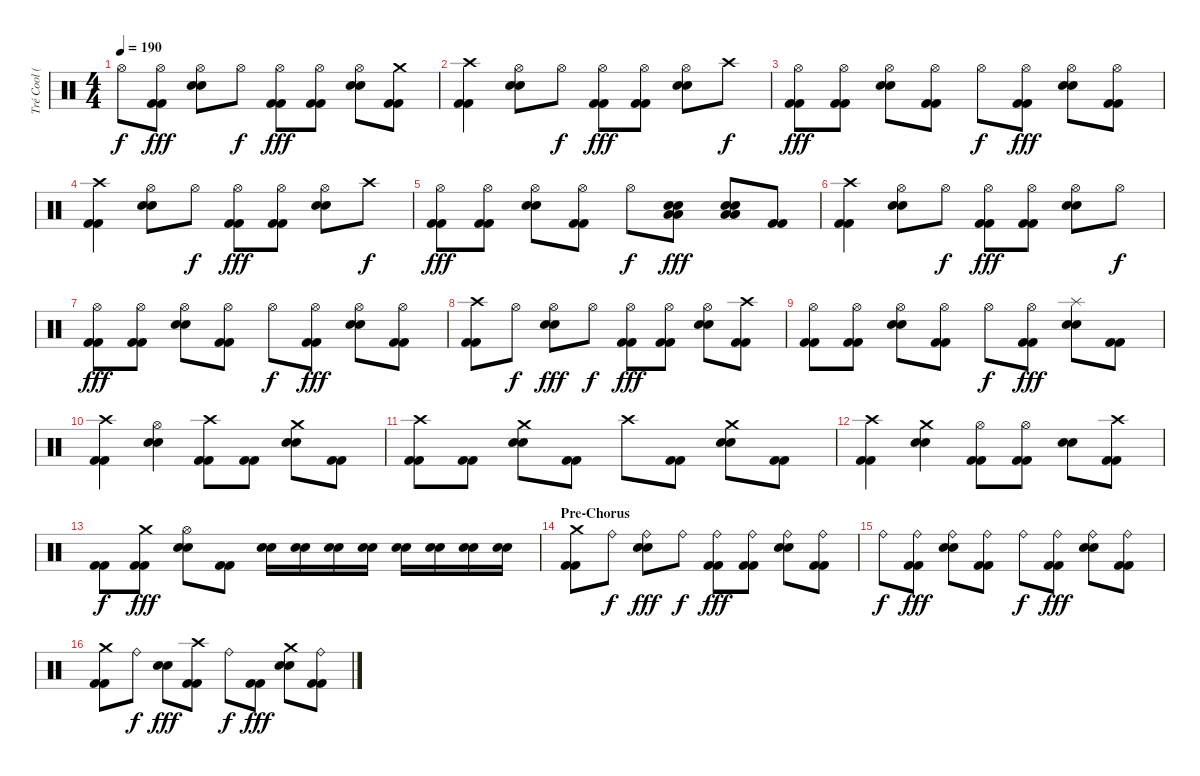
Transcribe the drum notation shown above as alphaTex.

\track ("Tré Cool (Drums)" "Tré Cool (") {instrument percussion}
\staff {score}
\articulation defaults
\ts (4 4)
\tempo 190
\clef neutral
\ks c "Hi-Hat (open)".8{dy f}
("Kick (hit) 2" "Kick (hit) 2" "Hi-Hat (open)").8{dy fff} ("Electric Snare (hit)" "Electric Snare (hit)" "Hi-Hat (open)").8 "Hi-Hat (open)".8{dy f} ("Kick (hit) 2" "Kick (hit) 2" "Hi-Hat (open)").8{dy fff} ("Kick (hit) 2" "Kick (hit) 2" "Hi-Hat (open)").8 ("Electric Snare (hit)" "Electric Snare (hit)" "Hi-Hat (open)").8 ("Kick (hit) 2" "Kick (hit) 2" "Crash medium (hit)").8 |
("Kick (hit) 2" "Kick (hit) 2" "Crash high (hit)").4 ("Electric Snare (hit)" "Electric Snare (hit)" "Hi-Hat (open)").8 "Hi-Hat (open)".8{dy f} ("Kick (hit) 2" "Kick (hit) 2" "Hi-Hat (open)").8{dy fff} ("Kick (hit) 2" "Kick (hit) 2" "Hi-Hat (open)").8 ("Electric Snare (hit)" "Electric Snare (hit)" "Hi-Hat (open)").8 "Crash high (hit)".8{dy f} |
("Kick (hit) 2" "Kick (hit) 2" "Hi-Hat (open)").8{dy fff} ("Kick (hit) 2" "Kick (hit) 2" "Hi-Hat (open)").8 ("Electric Snare (hit)" "Electric Snare (hit)" "Hi-Hat (open)").8 ("Kick (hit) 2" "Kick (hit) 2" "Hi-Hat (open)").8 "Hi-Hat (open)".8{dy f} ("Kick (hit) 2" "Kick (hit) 2" "Hi-Hat (open)").8{dy fff} ("Electric Snare (hit)" "Electric Snare (hit)" "Hi-Hat (open)").8 ("Kick (hit) 2" "Kick (hit) 2" "Hi-Hat (open)").8 |
("Kick (hit) 2" "Kick (hit) 2" "Crash high (hit)").4 ("Electric Snare (hit)" "Electric Snare (hit)" "Hi-Hat (open)").8 "Hi-Hat (open)".8{dy f} ("Kick (hit) 2" "Kick (hit) 2" "Hi-Hat (open)").8{dy fff} ("Kick (hit) 2" "Kick (hit) 2" "Hi-Hat (open)").8 ("Electric Snare (hit)" "Electric Snare (hit)" "Hi-Hat (open)").8 "Crash high (hit)".8{dy f} |
("Kick (hit) 2" "Kick (hit) 2" "Hi-Hat (open)").8{dy fff} ("Kick (hit) 2" "Kick (hit) 2" "Hi-Hat (open)").8 ("Electric Snare (hit)" "Electric Snare (hit)" "Hi-Hat (open)").8 ("Kick (hit) 2" "Kick (hit) 2" "Hi-Hat (open)").8 "Hi-Hat (open)".8{dy f} ("Electric Snare (hit)" "Electric Snare (hit)" "Low Floor Tom (hit)" "Low Floor Tom (hit)").8{dy fff} ("Electric Snare (hit)" "Electric Snare (hit)" "Low Floor Tom (hit)" "Low Floor Tom (hit)").8 ("Kick (hit) 2" "Kick (hit) 2").8 |
("Kick (hit) 2" "Kick (hit) 2" "Crash high (hit)").4 ("Electric Snare (hit)" "Electric Snare (hit)" "Hi-Hat (open)").8 "Hi-Hat (open)".8{dy f} ("Kick (hit) 2" "Kick (hit) 2" "Hi-Hat (open)").8{dy fff} ("Kick (hit) 2" "Kick (hit) 2" "Hi-Hat (open)").8 ("Electric Snare (hit)" "Electric Snare (hit)" "Hi-Hat (open)").8 "Hi-Hat (open)".8{dy f} |
("Kick (hit) 2" "Kick (hit) 2" "Hi-Hat (open)").8{dy fff} ("Kick (hit) 2" "Kick (hit) 2" "Hi-Hat (open)").8 ("Electric Snare (hit)" "Electric Snare (hit)" "Hi-Hat (open)").8 ("Kick (hit) 2" "Kick (hit) 2" "Hi-Hat (open)").8 "Hi-Hat (open)".8{dy f} ("Kick (hit) 2" "Kick (hit) 2" "Hi-Hat (open)").8{dy fff} ("Electric Snare (hit)" "Electric Snare (hit)" "Hi-Hat (open)").8 ("Kick (hit) 2" "Kick (hit) 2" "Hi-Hat (open)").8 |
("Kick (hit) 2" "Kick (hit) 2" "Crash high (hit)").8 "Hi-Hat (open)".8{dy f} ("Electric Snare (hit)" "Electric Snare (hit)" "Hi-Hat (open)").8{dy fff} "Hi-Hat (open)".8{dy f} ("Kick (hit) 2" "Kick (hit) 2" "Hi-Hat (open)").8{dy fff} ("Kick (hit) 2" "Kick (hit) 2" "Hi-Hat (open)").8 ("Electric Snare (hit)" "Electric Snare (hit)" "Hi-Hat (open)").8 ("Kick (hit) 2" "Kick (hit) 2" "Crash high (hit)").8 |
("Kick (hit) 2" "Kick (hit) 2" "Hi-Hat (open)").8 ("Kick (hit) 2" "Kick (hit) 2" "Hi-Hat (open)").8 ("Electric Snare (hit)" "Electric Snare (hit)" "Hi-Hat (open)").8 ("Kick (hit) 2" "Kick (hit) 2" "Hi-Hat (open)").8 "Hi-Hat (open)".8{dy f} ("Kick (hit) 2" "Kick (hit) 2" "Hi-Hat (open)").8{dy fff} ("Electric Snare (hit)" "Electric Snare (hit)" "Splash (hit)").8 ("Kick (hit) 2" "Kick (hit) 2").8 |
("Kick (hit) 2" "Kick (hit) 2" "Crash high (hit)").4 ("Electric Snare (hit)" "Electric Snare (hit)" "Hi-Hat (open)").4 ("Kick (hit) 2" "Kick (hit) 2" "Crash high (hit)").8 ("Kick (hit) 2" "Kick (hit) 2").8 ("Electric Snare (hit)" "Electric Snare (hit)" "Crash medium (hit)").8 ("Kick (hit) 2" "Kick (hit) 2").8 |
("Kick (hit) 2" "Kick (hit) 2" "Crash high (hit)").8 ("Kick (hit) 2" "Kick (hit) 2").8 ("Electric Snare (hit)" "Electric Snare (hit)" "Crash medium (hit)").8 ("Kick (hit) 2" "Kick (hit) 2").8 "Crash high (hit)".8 ("Kick (hit) 2" "Kick (hit) 2").8 ("Electric Snare (hit)" "Electric Snare (hit)" "Crash medium (hit)").8 ("Kick (hit) 2" "Kick (hit) 2").8 |
("Kick (hit) 2" "Kick (hit) 2" "Crash high (hit)").4 ("Electric Snare (hit)" "Electric Snare (hit)" "Crash medium (hit)").4 ("Kick (hit) 2" "Kick (hit) 2" "Hi-Hat (open)").8 ("Kick (hit) 2" "Kick (hit) 2" "Hi-Hat (open)").8 ("Electric Snare (hit)" "Electric Snare (hit)").8 ("Kick (hit) 2" "Kick (hit) 2" "Crash high (hit)").8 |
("Kick (hit) 2" "Kick (hit) 2").8{dy f} ("Kick (hit) 2" "Kick (hit) 2" "Crash medium (hit)").8{dy fff} ("Electric Snare (hit)" "Electric Snare (hit)" "Hi-Hat (open)").8 ("Kick (hit) 2" "Kick (hit) 2").8 ("Electric Snare (hit)" "Electric Snare (hit)").16 ("Electric Snare (hit)" "Electric Snare (hit)").16 ("Electric Snare (hit)" "Electric Snare (hit)").16 ("Electric Snare (hit)" "Electric Snare (hit)").16 ("Electric Snare (hit)" "Electric Snare (hit)").16 ("Electric Snare (hit)" "Electric Snare (hit)").16 ("Electric Snare (hit)" "Electric Snare (hit)").16 ("Electric Snare (hit)" "Electric Snare (hit)").16 |
\section ("" "Pre-Chorus")
("Kick (hit) 2" "Kick (hit) 2" "Crash medium (hit)").8 "Ride (bell)".8{dy f} ("Electric Snare (hit)" "Electric Snare (hit)" "Ride (bell)").8{dy fff} "Ride (bell)".8{dy f} ("Kick (hit) 2" "Kick (hit) 2" "Ride (bell)").8{dy fff} ("Kick (hit) 2" "Kick (hit) 2" "Ride (bell)").8 ("Electric Snare (hit)" "Electric Snare (hit)" "Ride (bell)").8 ("Kick (hit) 2" "Kick (hit) 2" "Ride (bell)").8 |
"Ride (bell)".8{dy f} ("Kick (hit) 2" "Kick (hit) 2" "Ride (bell)").8{dy fff} ("Electric Snare (hit)" "Electric Snare (hit)" "Ride (bell)").8 ("Kick (hit) 2" "Kick (hit) 2" "Ride (bell)").8 "Ride (bell)".8{dy f} ("Kick (hit) 2" "Kick (hit) 2" "Ride (bell)").8{dy fff} ("Electric Snare (hit)" "Electric Snare (hit)" "Ride (bell)").8 ("Kick (hit) 2" "Kick (hit) 2" "Ride (bell)").8 |
("Kick (hit) 2" "Kick (hit) 2" "Crash medium (hit)").8 "Ride (bell)".8{dy f} ("Electric Snare (hit)" "Electric Snare (hit)").8{dy fff} ("Kick (hit) 2" "Kick (hit) 2" "Crash high (hit)").8 "Ride (bell)".8{dy f} ("Kick (hit) 2" "Kick (hit) 2").8{dy fff} ("Electric Snare (hit)" "Electric Snare (hit)" "Crash medium (hit)").8 ("Kick (hit) 2" "Kick (hit) 2" "Ride (bell)").8
